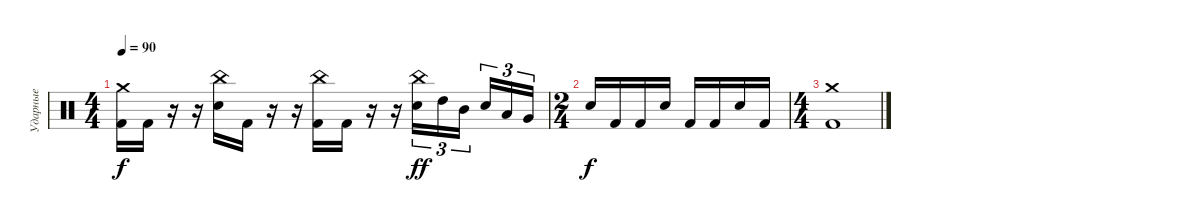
\track ("Ударные" "Ударные") {instrument percussion}
\staff {score}
\articulation defaults
\ts (4 4)
\tempo 90
\clef neutral
\ks c
("Crash medium (hit)" "Kick (hit) 2").16{dy f} "Kick (hit) 2".16 r.16 r.16 ("China (hit)" "Electric Snare (hit)").16 "Kick (hit) 2".16 r.16 r.16 ("China (hit)" "Kick (hit) 2").16 "Kick (hit) 2".16 r.16 r.16 ("China (hit)" "Electric Snare (hit)").16{tu (3 2) dy ff} "High Tom (hit)".16{tu (3 2)} "Mid Tom (hit)".16{tu (3 2) beam splitsecondary} "Electric Snare (hit)".16{tu (3 2)} "Low Tom (hit)".16{tu (3 2)} "Very Low Tom (hit)".16{tu (3 2)} |
\ts (2 4)
"Electric Snare (hit)".16{dy f} "Kick (hit) 2".16 "Kick (hit) 2".16 "Electric Snare (hit)".16 "Kick (hit) 2".16 "Kick (hit) 2".16 "Electric Snare (hit)".16 "Kick (hit) 2".16 |
\ts (4 4)
("Crash medium (hit)" "Kick (hit) 2").1
